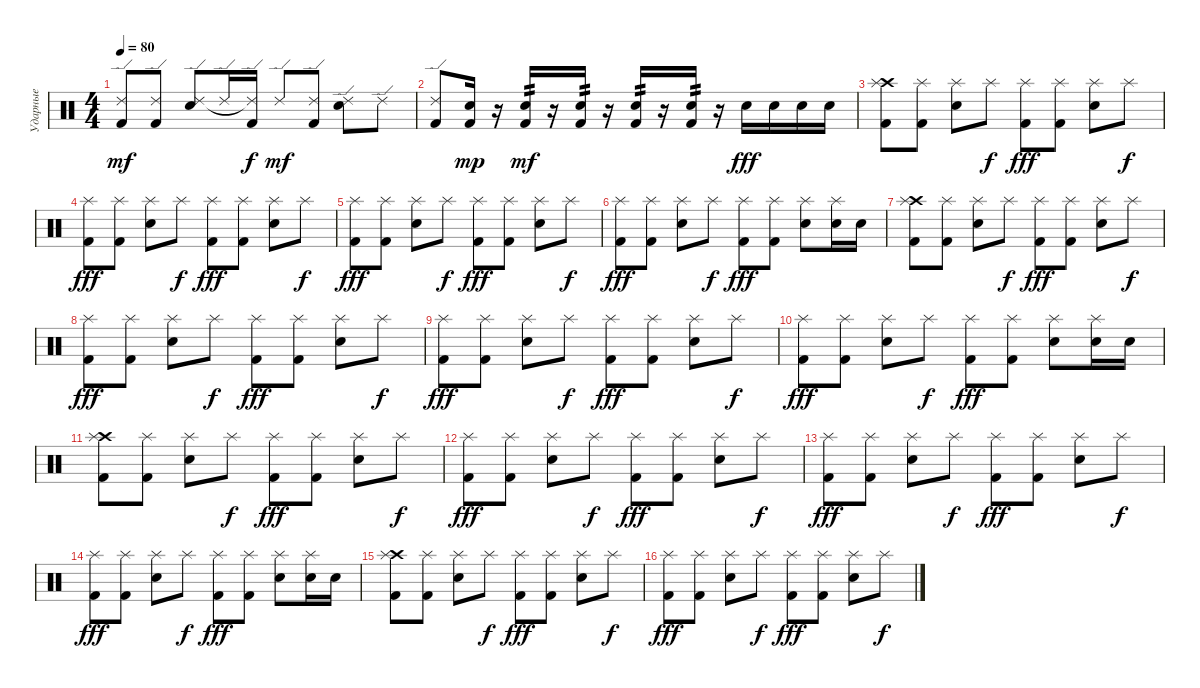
\track ("Ударные" "Ударные") {instrument percussion}
\staff {score}
\articulation defaults
\ts (4 4)
\tempo 80
\clef neutral
\ks c
("Kick (hit) 2" "Ride (edge) 2").8{dy mf} ("Kick (hit) 2" "Ride (edge) 2").8 ("Snare (hit) 2" "Ride (edge) 2").8 "Ride (edge) 2".16 ("Kick (hit) 2" "Ride (edge) 2"{t}).16{dy f} "Ride (edge) 2".8{dy mf} ("Kick (hit) 2" "Ride (edge) 2").8 ("Snare (hit) 2" "Ride (edge) 2").8 "Ride (edge) 2".8 |
("Kick (hit) 2" "Ride (edge) 2").8{volume 16} ("Snare (hit) 2" "Kick (hit) 2").16{dy mp} r.16 ("Snare (hit) 2" "Kick (hit) 2").16{tp 2 dy mf} r.16 ("Snare (hit) 2" "Kick (hit) 2").16{tp 2} r.16 ("Snare (hit) 2" "Kick (hit) 2").16{tp 2} r.16 ("Snare (hit) 2" "Kick (hit) 2").16{tp 2} r.16 "Snare (hit) 2".16{dy fff} "Snare (hit) 2".16 "Snare (hit) 2".16 "Snare (hit) 2".16 |
("Crash high (hit)" "Kick (hit) 2" "Splash (hit)").8 ("Kick (hit) 2" "Splash (hit)").8 ("Snare (hit) 2" "Splash (hit)").8 "Splash (hit)".8{dy f} ("Kick (hit) 2" "Splash (hit)").8{dy fff} ("Kick (hit) 2" "Splash (hit)").8 ("Snare (hit) 2" "Splash (hit)").8 "Splash (hit)".8{dy f} |
("Kick (hit) 2" "Splash (hit)").8{dy fff} ("Kick (hit) 2" "Splash (hit)").8 ("Snare (hit) 2" "Splash (hit)").8 "Splash (hit)".8{dy f} ("Kick (hit) 2" "Splash (hit)").8{dy fff} ("Kick (hit) 2" "Splash (hit)").8 ("Snare (hit) 2" "Splash (hit)").8 "Splash (hit)".8{dy f} |
("Kick (hit) 2" "Splash (hit)").8{dy fff} ("Kick (hit) 2" "Splash (hit)").8 ("Snare (hit) 2" "Splash (hit)").8 "Splash (hit)".8{dy f} ("Kick (hit) 2" "Splash (hit)").8{dy fff} ("Kick (hit) 2" "Splash (hit)").8 ("Snare (hit) 2" "Splash (hit)").8 "Splash (hit)".8{dy f} |
("Kick (hit) 2" "Splash (hit)").8{dy fff} ("Kick (hit) 2" "Splash (hit)").8 ("Snare (hit) 2" "Splash (hit)").8 "Splash (hit)".8{dy f} ("Kick (hit) 2" "Splash (hit)").8{dy fff} ("Kick (hit) 2" "Splash (hit)").8 ("Snare (hit) 2" "Splash (hit)").8 ("Electric Snare (hit)" "Splash (hit)").16 "Electric Snare (hit)".16 |
("Crash high (hit)" "Kick (hit) 2" "Splash (hit)").8 ("Kick (hit) 2" "Splash (hit)").8 ("Snare (hit) 2" "Splash (hit)").8 "Splash (hit)".8{dy f} ("Kick (hit) 2" "Splash (hit)").8{dy fff} ("Kick (hit) 2" "Splash (hit)").8 ("Snare (hit) 2" "Splash (hit)").8 "Splash (hit)".8{dy f} |
("Kick (hit) 2" "Splash (hit)").8{dy fff} ("Kick (hit) 2" "Splash (hit)").8 ("Snare (hit) 2" "Splash (hit)").8 "Splash (hit)".8{dy f} ("Kick (hit) 2" "Splash (hit)").8{dy fff} ("Kick (hit) 2" "Splash (hit)").8 ("Snare (hit) 2" "Splash (hit)").8 "Splash (hit)".8{dy f} |
("Kick (hit) 2" "Splash (hit)").8{dy fff} ("Kick (hit) 2" "Splash (hit)").8 ("Snare (hit) 2" "Splash (hit)").8 "Splash (hit)".8{dy f} ("Kick (hit) 2" "Splash (hit)").8{dy fff} ("Kick (hit) 2" "Splash (hit)").8 ("Snare (hit) 2" "Splash (hit)").8 "Splash (hit)".8{dy f} |
("Kick (hit) 2" "Splash (hit)").8{dy fff} ("Kick (hit) 2" "Splash (hit)").8 ("Snare (hit) 2" "Splash (hit)").8 "Splash (hit)".8{dy f} ("Kick (hit) 2" "Splash (hit)").8{dy fff} ("Kick (hit) 2" "Splash (hit)").8 ("Snare (hit) 2" "Splash (hit)").8 ("Electric Snare (hit)" "Splash (hit)").16 "Electric Snare (hit)".16 |
("Crash high (hit)" "Kick (hit) 2" "Splash (hit)").8 ("Kick (hit) 2" "Splash (hit)").8 ("Snare (hit) 2" "Splash (hit)").8 "Splash (hit)".8{dy f} ("Kick (hit) 2" "Splash (hit)").8{dy fff} ("Kick (hit) 2" "Splash (hit)").8 ("Snare (hit) 2" "Splash (hit)").8 "Splash (hit)".8{dy f} |
("Kick (hit) 2" "Splash (hit)").8{dy fff} ("Kick (hit) 2" "Splash (hit)").8 ("Snare (hit) 2" "Splash (hit)").8 "Splash (hit)".8{dy f} ("Kick (hit) 2" "Splash (hit)").8{dy fff} ("Kick (hit) 2" "Splash (hit)").8 ("Snare (hit) 2" "Splash (hit)").8 "Splash (hit)".8{dy f} |
("Kick (hit) 2" "Splash (hit)").8{dy fff} ("Kick (hit) 2" "Splash (hit)").8 ("Snare (hit) 2" "Splash (hit)").8 "Splash (hit)".8{dy f} ("Kick (hit) 2" "Splash (hit)").8{dy fff} ("Kick (hit) 2" "Splash (hit)").8 ("Snare (hit) 2" "Splash (hit)").8 "Splash (hit)".8{dy f} |
("Kick (hit) 2" "Splash (hit)").8{dy fff} ("Kick (hit) 2" "Splash (hit)").8 ("Snare (hit) 2" "Splash (hit)").8 "Splash (hit)".8{dy f} ("Kick (hit) 2" "Splash (hit)").8{dy fff} ("Kick (hit) 2" "Splash (hit)").8 ("Snare (hit) 2" "Splash (hit)").8 ("Electric Snare (hit)" "Splash (hit)").16 "Electric Snare (hit)".16 |
("Crash high (hit)" "Kick (hit) 2" "Splash (hit)").8 ("Kick (hit) 2" "Splash (hit)").8 ("Snare (hit) 2" "Splash (hit)").8 "Splash (hit)".8{dy f} ("Kick (hit) 2" "Splash (hit)").8{dy fff} ("Kick (hit) 2" "Splash (hit)").8 ("Snare (hit) 2" "Splash (hit)").8 "Splash (hit)".8{dy f} |
("Kick (hit) 2" "Splash (hit)").8{dy fff} ("Kick (hit) 2" "Splash (hit)").8 ("Snare (hit) 2" "Splash (hit)").8 "Splash (hit)".8{dy f} ("Kick (hit) 2" "Splash (hit)").8{dy fff} ("Kick (hit) 2" "Splash (hit)").8 ("Snare (hit) 2" "Splash (hit)").8 "Splash (hit)".8{dy f}
